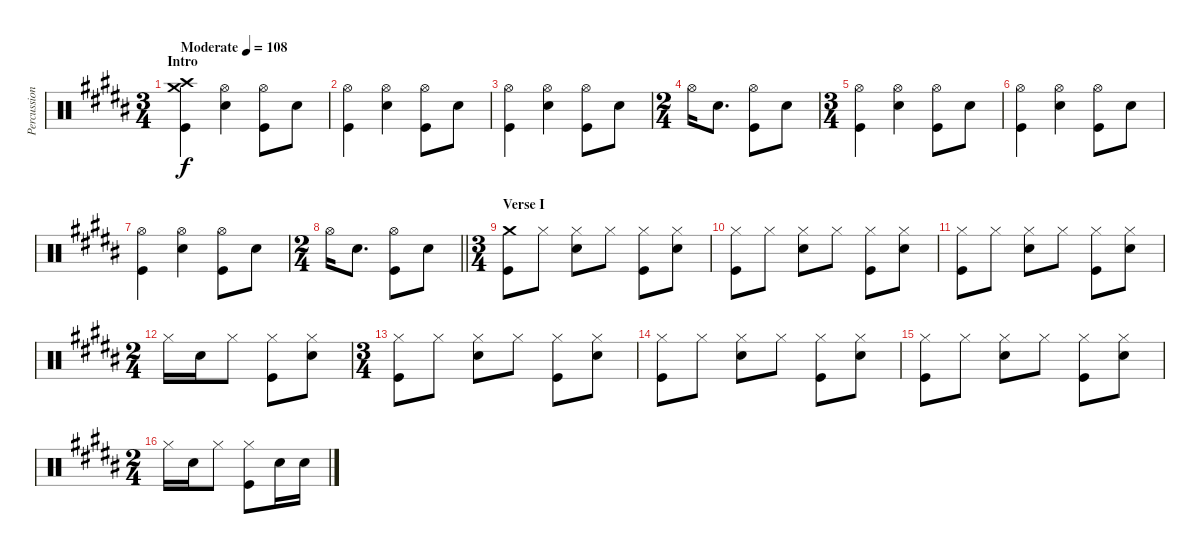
\track ("Percussion" "Percussion") {instrument percussion}
\staff {score}
\articulation defaults
\ts (3 4)
\section ("" "Intro")
\tempo (108 "Moderate")
\clef neutral
\ks b
("Crash high (hit)" "Crash medium (hit)" "Kick (hit)").4{dy f} ("Hi-Hat (open)" "Electric Snare (hit)").4 ("Hi-Hat (open)" "Kick (hit)").8 "Electric Snare (hit)".8 |
("Hi-Hat (open)" "Kick (hit)").4 ("Hi-Hat (open)" "Electric Snare (hit)").4 ("Hi-Hat (open)" "Kick (hit)").8 "Electric Snare (hit)".8 |
("Hi-Hat (open)" "Kick (hit)").4 ("Hi-Hat (open)" "Electric Snare (hit)").4 ("Hi-Hat (open)" "Kick (hit)").8 "Electric Snare (hit)".8 |
\ts (2 4)
"Hi-Hat (open)".16 "Electric Snare (hit)".8{d} ("Hi-Hat (open)" "Kick (hit)").8 "Electric Snare (hit)".8 |
\ts (3 4)
("Hi-Hat (open)" "Kick (hit)").4 ("Hi-Hat (open)" "Electric Snare (hit)").4 ("Hi-Hat (open)" "Kick (hit)").8 "Electric Snare (hit)".8 |
("Hi-Hat (open)" "Kick (hit)").4 ("Hi-Hat (open)" "Electric Snare (hit)").4 ("Hi-Hat (open)" "Kick (hit)").8 "Electric Snare (hit)".8 |
("Hi-Hat (open)" "Kick (hit)").4 ("Hi-Hat (open)" "Electric Snare (hit)").4 ("Hi-Hat (open)" "Kick (hit)").8 "Electric Snare (hit)".8 |
\ts (2 4)
\barLineRight lightlight "Hi-Hat (open)".16 "Electric Snare (hit)".8{d}
("Hi-Hat (open)" "Kick (hit)").8 "Electric Snare (hit)".8 |
\ts (3 4)
\section ("" "Verse I")
("Crash medium (hit)" "Kick (hit)").8 "Hi-Hat (closed)".8 ("Hi-Hat (closed)" "Electric Snare (hit)").8 "Hi-Hat (closed)".8 ("Hi-Hat (closed)" "Kick (hit)").8 ("Hi-Hat (closed)" "Electric Snare (hit)").8 |
("Hi-Hat (closed)" "Kick (hit)").8 "Hi-Hat (closed)".8 ("Hi-Hat (closed)" "Electric Snare (hit)").8 "Hi-Hat (closed)".8 ("Hi-Hat (closed)" "Kick (hit)").8 ("Hi-Hat (closed)" "Electric Snare (hit)").8 |
("Hi-Hat (closed)" "Kick (hit)").8 "Hi-Hat (closed)".8 ("Hi-Hat (closed)" "Electric Snare (hit)").8 "Hi-Hat (closed)".8 ("Hi-Hat (closed)" "Kick (hit)").8 ("Hi-Hat (closed)" "Electric Snare (hit)").8 |
\ts (2 4)
"Hi-Hat (closed)".16 "Electric Snare (hit)".16 "Hi-Hat (closed)".8 ("Hi-Hat (closed)" "Kick (hit)").8 ("Hi-Hat (closed)" "Electric Snare (hit)").8 |
\ts (3 4)
("Hi-Hat (closed)" "Kick (hit)").8 "Hi-Hat (closed)".8 ("Hi-Hat (closed)" "Electric Snare (hit)").8 "Hi-Hat (closed)".8 ("Hi-Hat (closed)" "Kick (hit)").8 ("Hi-Hat (closed)" "Electric Snare (hit)").8 |
("Hi-Hat (closed)" "Kick (hit)").8 "Hi-Hat (closed)".8 ("Hi-Hat (closed)" "Electric Snare (hit)").8 "Hi-Hat (closed)".8 ("Hi-Hat (closed)" "Kick (hit)").8 ("Hi-Hat (closed)" "Electric Snare (hit)").8 |
("Hi-Hat (closed)" "Kick (hit)").8 "Hi-Hat (closed)".8 ("Hi-Hat (closed)" "Electric Snare (hit)").8 "Hi-Hat (closed)".8 ("Hi-Hat (closed)" "Kick (hit)").8 ("Hi-Hat (closed)" "Electric Snare (hit)").8 |
\ts (2 4)
"Hi-Hat (closed)".16 "Electric Snare (hit)".16 "Hi-Hat (closed)".8 ("Hi-Hat (closed)" "Kick (hit)").8 "Electric Snare (hit)".16 "Electric Snare (hit)".16
